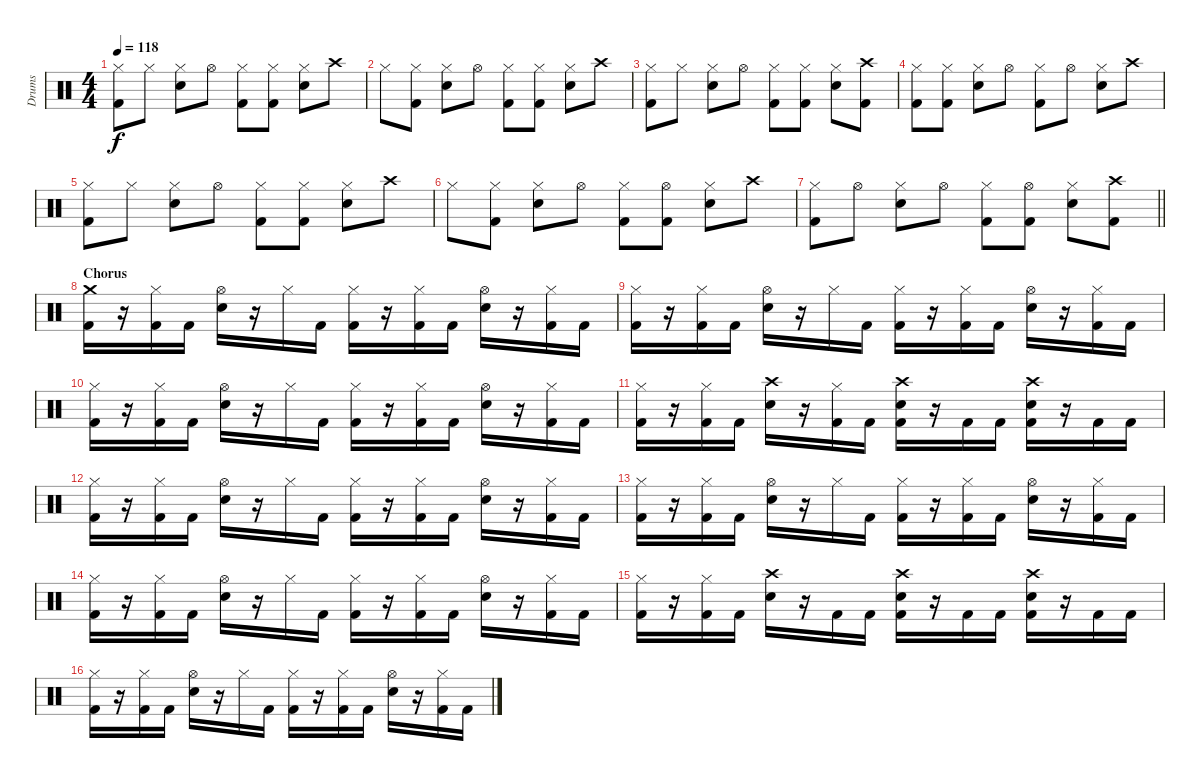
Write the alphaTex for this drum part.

\track ("Drums" "Drums") {instrument percussion}
\staff {score}
\articulation defaults
\ts (4 4)
\tempo 118
\clef neutral
\ks c
("Hi-Hat (closed)" "Kick (hit) 2").8{dy f} "Hi-Hat (closed)".8 ("Hi-Hat (closed)" "Snare (hit) 2").8 "Hi-Hat (open)".8 ("Hi-Hat (closed)" "Kick (hit) 2").8 ("Hi-Hat (closed)" "Kick (hit) 2").8 ("Hi-Hat (closed)" "Snare (hit) 2").8 "Crash high (hit)".8 |
"Hi-Hat (closed)".8 ("Hi-Hat (closed)" "Kick (hit) 2").8 ("Hi-Hat (closed)" "Snare (hit) 2").8 "Hi-Hat (open)".8 ("Hi-Hat (closed)" "Kick (hit) 2").8 ("Hi-Hat (closed)" "Kick (hit) 2").8 ("Hi-Hat (closed)" "Snare (hit) 2").8 "Crash high (hit)".8 |
("Hi-Hat (closed)" "Kick (hit) 2").8 "Hi-Hat (closed)".8 ("Hi-Hat (closed)" "Snare (hit) 2").8 "Hi-Hat (open)".8 ("Hi-Hat (closed)" "Kick (hit) 2").8 ("Hi-Hat (closed)" "Kick (hit) 2").8 ("Hi-Hat (closed)" "Snare (hit) 2").8 ("Crash high (hit)" "Kick (hit) 2").8 |
("Hi-Hat (closed)" "Kick (hit) 2").8 ("Hi-Hat (closed)" "Kick (hit) 2").8 ("Hi-Hat (closed)" "Snare (hit) 2").8 "Hi-Hat (open)".8 ("Hi-Hat (closed)" "Kick (hit) 2").8 "Hi-Hat (open)".8 ("Hi-Hat (closed)" "Snare (hit) 2").8 "Crash high (hit)".8 |
("Hi-Hat (closed)" "Kick (hit) 2").8 "Hi-Hat (closed)".8 ("Hi-Hat (closed)" "Snare (hit) 2").8 "Hi-Hat (open)".8 ("Hi-Hat (closed)" "Kick (hit) 2").8 ("Hi-Hat (closed)" "Kick (hit) 2").8 ("Hi-Hat (closed)" "Snare (hit) 2").8 "Crash high (hit)".8 |
"Hi-Hat (closed)".8 ("Hi-Hat (closed)" "Kick (hit) 2").8 ("Hi-Hat (closed)" "Snare (hit) 2").8 "Hi-Hat (open)".8 ("Hi-Hat (closed)" "Kick (hit) 2").8 ("Hi-Hat (open)" "Kick (hit) 2").8 ("Hi-Hat (closed)" "Snare (hit) 2").8 "Crash high (hit)".8 |
\barLineRight lightlight
("Hi-Hat (closed)" "Kick (hit) 2").8 "Hi-Hat (open)".8 ("Hi-Hat (closed)" "Snare (hit) 2").8 "Hi-Hat (open)".8 ("Hi-Hat (closed)" "Kick (hit) 2").8 ("Hi-Hat (open)" "Kick (hit) 2").8 ("Hi-Hat (closed)" "Snare (hit) 2").8 ("Crash high (hit)" "Kick (hit) 2").8 |
\section ("" "Chorus")
("Crash medium (hit)" "Kick (hit) 2").16 r.16 ("Hi-Hat (closed)" "Kick (hit) 2").16 "Kick (hit) 2".16 ("Hi-Hat (open)" "Snare (hit) 2").16 r.16 "Hi-Hat (closed)".16 "Kick (hit) 2".16 ("Hi-Hat (closed)" "Kick (hit) 2").16 r.16 ("Hi-Hat (closed)" "Kick (hit) 2").16 "Kick (hit) 2".16 ("Hi-Hat (open)" "Snare (hit) 2").16 r.16 ("Hi-Hat (closed)" "Kick (hit) 2").16 "Kick (hit) 2".16 |
("Hi-Hat (closed)" "Kick (hit) 2").16 r.16 ("Hi-Hat (closed)" "Kick (hit) 2").16 "Kick (hit) 2".16 ("Hi-Hat (open)" "Snare (hit) 2").16 r.16 "Hi-Hat (closed)".16 "Kick (hit) 2".16 ("Hi-Hat (closed)" "Kick (hit) 2").16 r.16 ("Hi-Hat (closed)" "Kick (hit) 2").16 "Kick (hit) 2".16 ("Hi-Hat (open)" "Snare (hit) 2").16 r.16 ("Hi-Hat (closed)" "Kick (hit) 2").16 "Kick (hit) 2".16 |
("Hi-Hat (closed)" "Kick (hit) 2").16 r.16 ("Hi-Hat (closed)" "Kick (hit) 2").16 "Kick (hit) 2".16 ("Hi-Hat (open)" "Snare (hit) 2").16 r.16 "Hi-Hat (closed)".16 "Kick (hit) 2".16 ("Hi-Hat (closed)" "Kick (hit) 2").16 r.16 ("Hi-Hat (closed)" "Kick (hit) 2").16 "Kick (hit) 2".16 ("Hi-Hat (open)" "Snare (hit) 2").16 r.16 ("Hi-Hat (closed)" "Kick (hit) 2").16 "Kick (hit) 2".16 |
("Hi-Hat (closed)" "Kick (hit) 2").16 r.16 ("Hi-Hat (closed)" "Kick (hit) 2").16 "Kick (hit) 2".16 ("Crash high (hit)" "Snare (hit) 2").16 r.16 ("Hi-Hat (closed)" "Kick (hit) 2").16 "Kick (hit) 2".16 ("Crash high (hit)" "Snare (hit) 2" "Kick (hit) 2").16 r.16 "Kick (hit) 2".16 "Kick (hit) 2".16 ("Crash high (hit)" "Snare (hit) 2" "Kick (hit) 2").16 r.16 "Kick (hit) 2".16 "Kick (hit) 2".16 |
("Hi-Hat (closed)" "Kick (hit) 2").16 r.16 ("Hi-Hat (closed)" "Kick (hit) 2").16 "Kick (hit) 2".16 ("Hi-Hat (open)" "Snare (hit) 2").16 r.16 "Hi-Hat (closed)".16 "Kick (hit) 2".16 ("Hi-Hat (closed)" "Kick (hit) 2").16 r.16 ("Hi-Hat (closed)" "Kick (hit) 2").16 "Kick (hit) 2".16 ("Hi-Hat (open)" "Snare (hit) 2").16 r.16 ("Hi-Hat (closed)" "Kick (hit) 2").16 "Kick (hit) 2".16 |
("Hi-Hat (closed)" "Kick (hit) 2").16 r.16 ("Hi-Hat (closed)" "Kick (hit) 2").16 "Kick (hit) 2".16 ("Hi-Hat (open)" "Snare (hit) 2").16 r.16 "Hi-Hat (closed)".16 "Kick (hit) 2".16 ("Hi-Hat (closed)" "Kick (hit) 2").16 r.16 ("Hi-Hat (closed)" "Kick (hit) 2").16 "Kick (hit) 2".16 ("Hi-Hat (open)" "Snare (hit) 2").16 r.16 ("Hi-Hat (closed)" "Kick (hit) 2").16 "Kick (hit) 2".16 |
("Hi-Hat (closed)" "Kick (hit) 2").16 r.16 ("Hi-Hat (closed)" "Kick (hit) 2").16 "Kick (hit) 2".16 ("Hi-Hat (open)" "Snare (hit) 2").16 r.16 "Hi-Hat (closed)".16 "Kick (hit) 2".16 ("Hi-Hat (closed)" "Kick (hit) 2").16 r.16 ("Hi-Hat (closed)" "Kick (hit) 2").16 "Kick (hit) 2".16 ("Hi-Hat (open)" "Snare (hit) 2").16 r.16 ("Hi-Hat (closed)" "Kick (hit) 2").16 "Kick (hit) 2".16 |
("Hi-Hat (closed)" "Kick (hit) 2").16 r.16 ("Hi-Hat (closed)" "Kick (hit) 2").16 "Kick (hit) 2".16 ("Crash high (hit)" "Snare (hit) 2").16 r.16 "Kick (hit) 2".16 "Kick (hit) 2".16 ("Crash high (hit)" "Snare (hit) 2" "Kick (hit) 2").16 r.16 "Kick (hit) 2".16 "Kick (hit) 2".16 ("Crash high (hit)" "Snare (hit) 2" "Kick (hit) 2").16 r.16 "Kick (hit) 2".16 "Kick (hit) 2".16 |
("Hi-Hat (closed)" "Kick (hit) 2").16 r.16 ("Hi-Hat (closed)" "Kick (hit) 2").16 "Kick (hit) 2".16 ("Hi-Hat (open)" "Snare (hit) 2").16 r.16 "Hi-Hat (closed)".16 "Kick (hit) 2".16 ("Hi-Hat (closed)" "Kick (hit) 2").16 r.16 ("Hi-Hat (closed)" "Kick (hit) 2").16 "Kick (hit) 2".16 ("Hi-Hat (open)" "Snare (hit) 2").16 r.16 ("Hi-Hat (closed)" "Kick (hit) 2").16 "Kick (hit) 2".16
